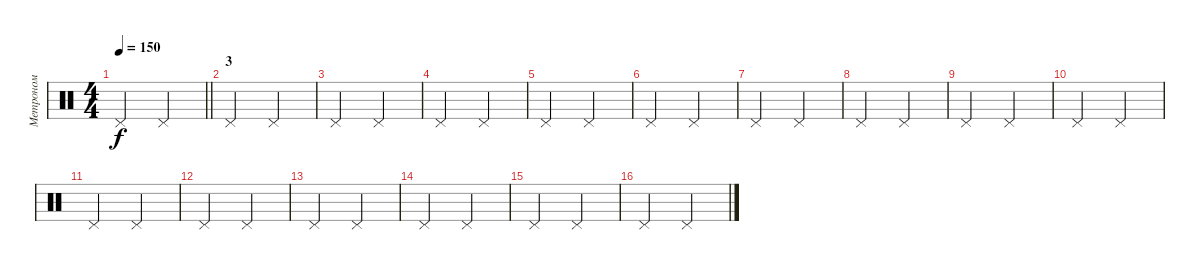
\track ("Метроном" "Метроном") {mute instrument percussion}
\staff {score}
\articulation defaults
\ts (4 4)
\tempo 150
\clef neutral
\barLineRight lightlight
\ks c "Pedal Hi-Hat (hit)".2{dy f} "Pedal Hi-Hat (hit)".2
|
\section ("" "3")
"Pedal Hi-Hat (hit)".2 "Pedal Hi-Hat (hit)".2 |
"Pedal Hi-Hat (hit)".2 "Pedal Hi-Hat (hit)".2 |
"Pedal Hi-Hat (hit)".2 "Pedal Hi-Hat (hit)".2 |
"Pedal Hi-Hat (hit)".2 "Pedal Hi-Hat (hit)".2 |
"Pedal Hi-Hat (hit)".2 "Pedal Hi-Hat (hit)".2 |
"Pedal Hi-Hat (hit)".2 "Pedal Hi-Hat (hit)".2 |
"Pedal Hi-Hat (hit)".2 "Pedal Hi-Hat (hit)".2 |
"Pedal Hi-Hat (hit)".2 "Pedal Hi-Hat (hit)".2 |
"Pedal Hi-Hat (hit)".2 "Pedal Hi-Hat (hit)".2 |
"Pedal Hi-Hat (hit)".2 "Pedal Hi-Hat (hit)".2 |
"Pedal Hi-Hat (hit)".2 "Pedal Hi-Hat (hit)".2 |
"Pedal Hi-Hat (hit)".2 "Pedal Hi-Hat (hit)".2 |
"Pedal Hi-Hat (hit)".2 "Pedal Hi-Hat (hit)".2 |
"Pedal Hi-Hat (hit)".2 "Pedal Hi-Hat (hit)".2 |
"Pedal Hi-Hat (hit)".2 "Pedal Hi-Hat (hit)".2
